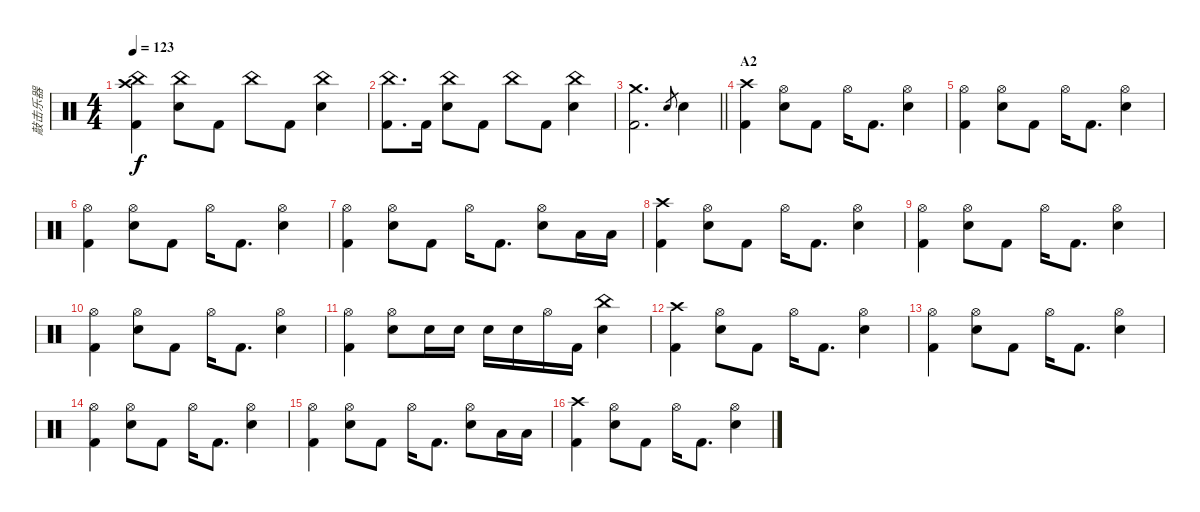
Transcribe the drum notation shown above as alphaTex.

\track ("敲击乐器" "敲击乐器") {instrument percussion}
\staff {score}
\articulation defaults
\ts (4 4)
\tempo 123
\clef neutral
\ks c
("Crash high (hit)" "China (hit)" "Kick (hit) 2").4{dy f} ("China (hit)" "Electric Snare (hit)").8 "Kick (hit) 2".8 "China (hit)".8 "Kick (hit) 2".8 ("China (hit)" "Electric Snare (hit)").4 |
("China (hit)" "Kick (hit) 2").8{d} "Kick (hit) 2".16 ("China (hit)" "Electric Snare (hit)").8 "Kick (hit) 2".8 "China (hit)".8 "Kick (hit) 2".8 ("China (hit)" "Electric Snare (hit)").4 |
\barLineRight lightlight
("Crash medium (hit)" "Kick (hit) 2").2{d} "Electric Snare (hit)".8{gr} "Electric Snare (hit)".4 |
\section ("" "A2")
("Crash high (hit)" "Kick (hit) 2").4 ("Hi-Hat (open)" "Electric Snare (hit)").8 "Kick (hit) 2".8 "Hi-Hat (open)".16 "Kick (hit) 2".8{d} ("Hi-Hat (open)" "Electric Snare (hit)").4 |
("Hi-Hat (open)" "Kick (hit) 2").4 ("Hi-Hat (open)" "Electric Snare (hit)").8 "Kick (hit) 2".8 "Hi-Hat (open)".16 "Kick (hit) 2".8{d} ("Hi-Hat (open)" "Electric Snare (hit)").4 |
("Hi-Hat (open)" "Kick (hit) 2").4 ("Hi-Hat (open)" "Electric Snare (hit)").8 "Kick (hit) 2".8 "Hi-Hat (open)".16 "Kick (hit) 2".8{d} ("Hi-Hat (open)" "Electric Snare (hit)").4 |
("Hi-Hat (open)" "Kick (hit) 2").4 ("Hi-Hat (open)" "Electric Snare (hit)").8 "Kick (hit) 2".8 "Hi-Hat (open)".16 "Kick (hit) 2".8{d} ("Hi-Hat (open)" "Electric Snare (hit)").8 "Low Tom (hit)".16 "Low Tom (hit)".16 |
("Crash high (hit)" "Kick (hit) 2").4 ("Hi-Hat (open)" "Electric Snare (hit)").8 "Kick (hit) 2".8 "Hi-Hat (open)".16 "Kick (hit) 2".8{d} ("Hi-Hat (open)" "Electric Snare (hit)").4 |
("Hi-Hat (open)" "Kick (hit) 2").4 ("Hi-Hat (open)" "Electric Snare (hit)").8 "Kick (hit) 2".8 "Hi-Hat (open)".16 "Kick (hit) 2".8{d} ("Hi-Hat (open)" "Electric Snare (hit)").4 |
("Hi-Hat (open)" "Kick (hit) 2").4 ("Hi-Hat (open)" "Electric Snare (hit)").8 "Kick (hit) 2".8 "Hi-Hat (open)".16 "Kick (hit) 2".8{d} ("Hi-Hat (open)" "Electric Snare (hit)").4 |
("Hi-Hat (open)" "Kick (hit) 2").4 ("Hi-Hat (open)" "Electric Snare (hit)").8 "Electric Snare (hit)".16 "Electric Snare (hit)".16 "Electric Snare (hit)".16 "Electric Snare (hit)".16 "Hi-Hat (open)".16 "Kick (hit) 2".16 ("China (hit)" "Electric Snare (hit)").4 |
("Crash high (hit)" "Kick (hit) 2").4 ("Hi-Hat (open)" "Electric Snare (hit)").8 "Kick (hit) 2".8 "Hi-Hat (open)".16 "Kick (hit) 2".8{d} ("Hi-Hat (open)" "Electric Snare (hit)").4 |
("Hi-Hat (open)" "Kick (hit) 2").4 ("Hi-Hat (open)" "Electric Snare (hit)").8 "Kick (hit) 2".8 "Hi-Hat (open)".16 "Kick (hit) 2".8{d} ("Hi-Hat (open)" "Electric Snare (hit)").4 |
("Hi-Hat (open)" "Kick (hit) 2").4 ("Hi-Hat (open)" "Electric Snare (hit)").8 "Kick (hit) 2".8 "Hi-Hat (open)".16 "Kick (hit) 2".8{d} ("Hi-Hat (open)" "Electric Snare (hit)").4 |
("Hi-Hat (open)" "Kick (hit) 2").4 ("Hi-Hat (open)" "Electric Snare (hit)").8 "Kick (hit) 2".8 "Hi-Hat (open)".16 "Kick (hit) 2".8{d} ("Hi-Hat (open)" "Electric Snare (hit)").8 "Low Tom (hit)".16 "Low Tom (hit)".16 |
("Crash high (hit)" "Kick (hit) 2").4 ("Hi-Hat (open)" "Electric Snare (hit)").8 "Kick (hit) 2".8 "Hi-Hat (open)".16 "Kick (hit) 2".8{d} ("Hi-Hat (open)" "Electric Snare (hit)").4
